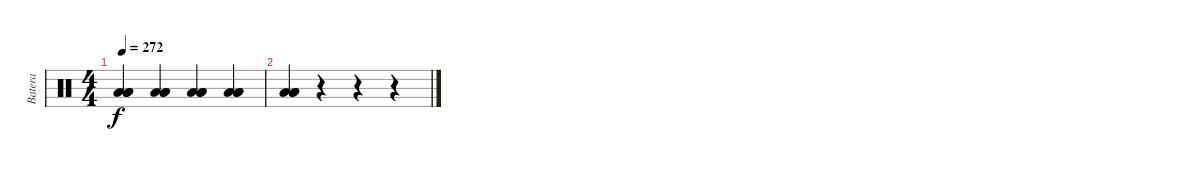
\track ("Batera" "Batera") {instrument percussion}
\staff {score}
\articulation defaults
\ts (4 4)
\tempo 272
\clef neutral
\ks c
("Low Tom (hit)" "Low Tom (hit)" "Low Floor Tom (hit)").4{dy f} ("Low Tom (hit)" "Low Tom (hit)" "Low Floor Tom (hit)").4 ("Low Tom (hit)" "Low Tom (hit)" "Low Floor Tom (hit)").4 ("Low Tom (hit)" "Low Tom (hit)" "Low Floor Tom (hit)").4 |
("Low Floor Tom (hit)" "Low Tom (hit)" "Low Floor Tom (hit)").4 r.4 r.4 r.4
